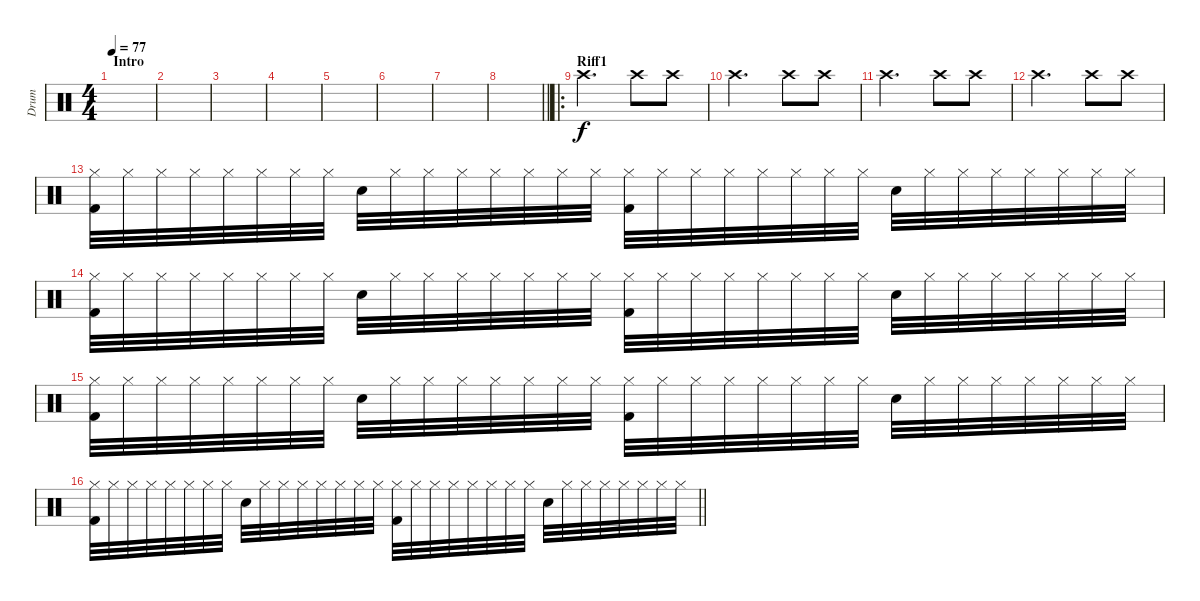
\track ("Drum" "Drum") {instrument percussion}
\staff {score}
\articulation defaults
\ts (4 4)
\section ("" "Intro")
\tempo 77
\clef neutral
\ks c
|
|
|
|
|
|
|
\barLineRight lightlight
|
\ro
\section ("" "Riff1")
"Crash high (hit)".2{d} "Crash high (hit)".8 "Crash high (hit)".8 |
"Crash high (hit)".2{d} "Crash high (hit)".8 "Crash high (hit)".8 |
"Crash high (hit)".2{d} "Crash high (hit)".8 "Crash high (hit)".8 |
"Crash high (hit)".2{d} "Crash high (hit)".8 "Crash high (hit)".8 |
("Hi-Hat (closed)" "Kick (hit) 2").32 "Hi-Hat (closed)".32 "Hi-Hat (closed)".32 "Hi-Hat (closed)".32 "Hi-Hat (closed)".32 "Hi-Hat (closed)".32 "Hi-Hat (closed)".32 "Hi-Hat (closed)".32 "Snare (hit) 2".32 "Hi-Hat (closed)".32 "Hi-Hat (closed)".32 "Hi-Hat (closed)".32 "Hi-Hat (closed)".32 "Hi-Hat (closed)".32 "Hi-Hat (closed)".32 "Hi-Hat (closed)".32 ("Hi-Hat (closed)" "Kick (hit) 2").32 "Hi-Hat (closed)".32 "Hi-Hat (closed)".32 "Hi-Hat (closed)".32 "Hi-Hat (closed)".32 "Hi-Hat (closed)".32 "Hi-Hat (closed)".32 "Hi-Hat (closed)".32 "Snare (hit) 2".32 "Hi-Hat (closed)".32 "Hi-Hat (closed)".32 "Hi-Hat (closed)".32 "Hi-Hat (closed)".32 "Hi-Hat (closed)".32 "Hi-Hat (closed)".32 "Hi-Hat (closed)".32 |
("Hi-Hat (closed)" "Kick (hit) 2").32 "Hi-Hat (closed)".32 "Hi-Hat (closed)".32 "Hi-Hat (closed)".32 "Hi-Hat (closed)".32 "Hi-Hat (closed)".32 "Hi-Hat (closed)".32 "Hi-Hat (closed)".32 "Snare (hit) 2".32 "Hi-Hat (closed)".32 "Hi-Hat (closed)".32 "Hi-Hat (closed)".32 "Hi-Hat (closed)".32 "Hi-Hat (closed)".32 "Hi-Hat (closed)".32 "Hi-Hat (closed)".32 ("Hi-Hat (closed)" "Kick (hit) 2").32 "Hi-Hat (closed)".32 "Hi-Hat (closed)".32 "Hi-Hat (closed)".32 "Hi-Hat (closed)".32 "Hi-Hat (closed)".32 "Hi-Hat (closed)".32 "Hi-Hat (closed)".32 "Snare (hit) 2".32 "Hi-Hat (closed)".32 "Hi-Hat (closed)".32 "Hi-Hat (closed)".32 "Hi-Hat (closed)".32 "Hi-Hat (closed)".32 "Hi-Hat (closed)".32 "Hi-Hat (closed)".32 |
("Hi-Hat (closed)" "Kick (hit) 2").32 "Hi-Hat (closed)".32 "Hi-Hat (closed)".32 "Hi-Hat (closed)".32 "Hi-Hat (closed)".32 "Hi-Hat (closed)".32 "Hi-Hat (closed)".32 "Hi-Hat (closed)".32 "Snare (hit) 2".32 "Hi-Hat (closed)".32 "Hi-Hat (closed)".32 "Hi-Hat (closed)".32 "Hi-Hat (closed)".32 "Hi-Hat (closed)".32 "Hi-Hat (closed)".32 "Hi-Hat (closed)".32 ("Hi-Hat (closed)" "Kick (hit) 2").32 "Hi-Hat (closed)".32 "Hi-Hat (closed)".32 "Hi-Hat (closed)".32 "Hi-Hat (closed)".32 "Hi-Hat (closed)".32 "Hi-Hat (closed)".32 "Hi-Hat (closed)".32 "Snare (hit) 2".32 "Hi-Hat (closed)".32 "Hi-Hat (closed)".32 "Hi-Hat (closed)".32 "Hi-Hat (closed)".32 "Hi-Hat (closed)".32 "Hi-Hat (closed)".32 "Hi-Hat (closed)".32 |
\barLineRight lightlight
("Hi-Hat (closed)" "Kick (hit) 2").32 "Hi-Hat (closed)".32 "Hi-Hat (closed)".32 "Hi-Hat (closed)".32 "Hi-Hat (closed)".32 "Hi-Hat (closed)".32 "Hi-Hat (closed)".32 "Hi-Hat (closed)".32 "Snare (hit) 2".32 "Hi-Hat (closed)".32 "Hi-Hat (closed)".32 "Hi-Hat (closed)".32 "Hi-Hat (closed)".32 "Hi-Hat (closed)".32 "Hi-Hat (closed)".32 "Hi-Hat (closed)".32 ("Hi-Hat (closed)" "Kick (hit) 2").32 "Hi-Hat (closed)".32 "Hi-Hat (closed)".32 "Hi-Hat (closed)".32 "Hi-Hat (closed)".32 "Hi-Hat (closed)".32 "Hi-Hat (closed)".32 "Hi-Hat (closed)".32 "Snare (hit) 2".32 "Hi-Hat (closed)".32 "Hi-Hat (closed)".32 "Hi-Hat (closed)".32 "Hi-Hat (closed)".32 "Hi-Hat (closed)".32 "Hi-Hat (closed)".32 "Hi-Hat (closed)".32
